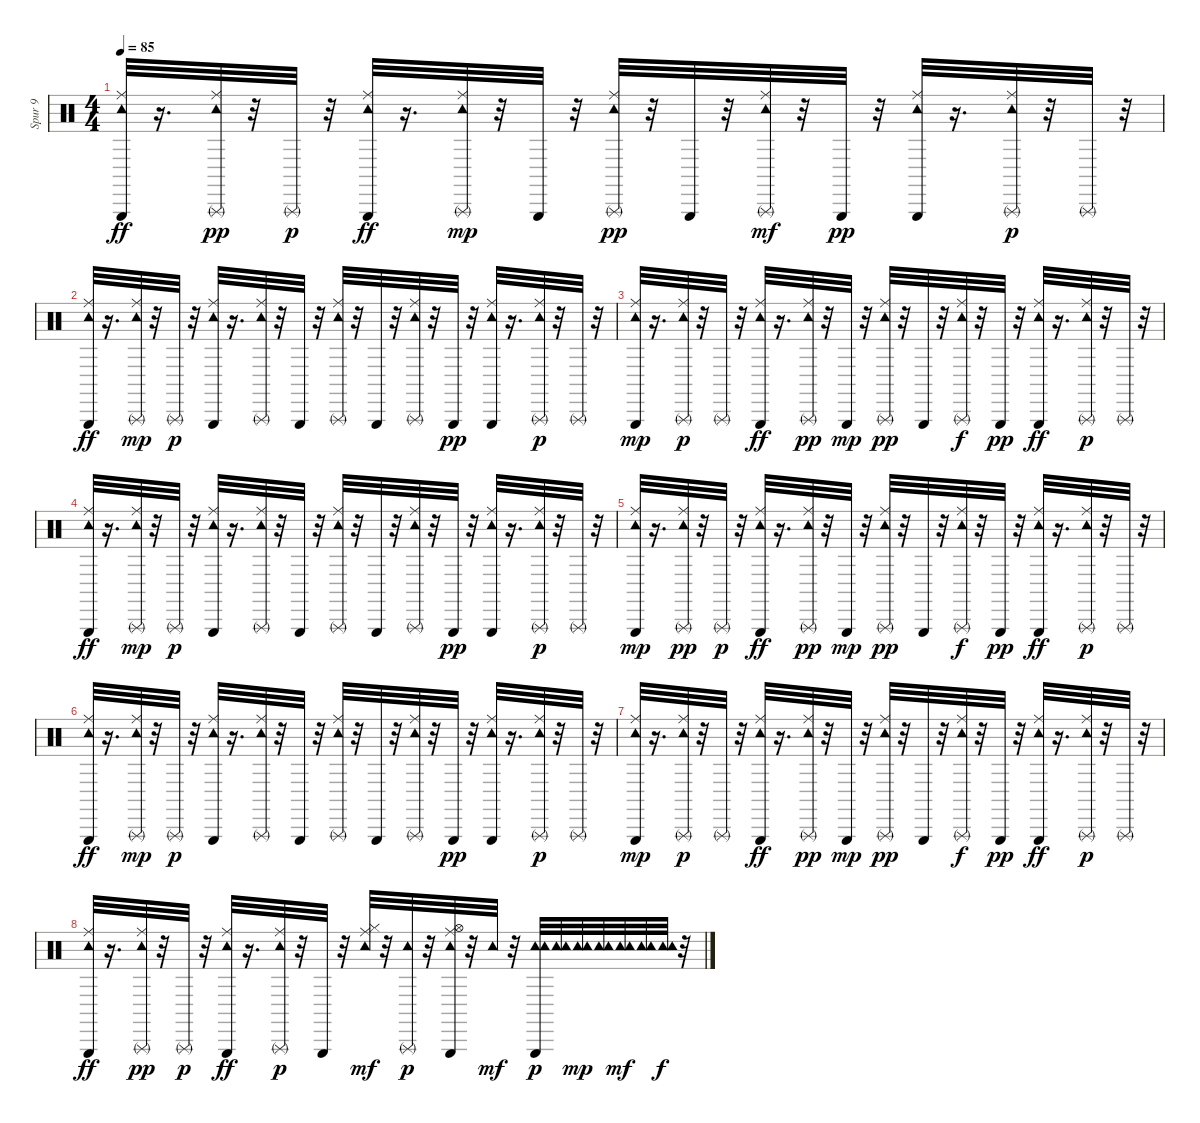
\track ("Spur 9" "Spur 9") {instrument percussion}
\staff {score}
\articulation defaults
\ts (4 4)
\tempo 85
\clef neutral
\ks c
("Ride (middle)" "Triangle (hit)" "Tambourine (hit)").32{dy ff} r.16{d} ("Tambourine (hit)" "Triangle (rnute)" "Ride (middle)").32{dy pp} r.32 "Triangle (rnute)".32{dy p} r.32 ("Triangle (hit)" "Tambourine (hit)" "Ride (middle)").32{dy ff} r.16{d} ("Ride (middle)" "Triangle (rnute)" "Tambourine (hit)").32{dy mp} r.32 "Triangle (hit)".32 r.32 ("Ride (middle)" "Tambourine (hit)" "Triangle (rnute)").32{dy pp} r.32 "Triangle (hit)".32 r.32 ("Triangle (rnute)" "Ride (middle)" "Tambourine (hit)").32{dy mf} r.32 "Triangle (hit)".32{dy pp} r.32 ("Tambourine (hit)" "Ride (middle)" "Triangle (hit)").32 r.16{d} ("Tambourine (hit)" "Triangle (rnute)" "Ride (middle)").32{dy p} r.32 "Triangle (rnute)".32 r.32 |
("Triangle (hit)" "Ride (middle)" "Tambourine (hit)").32{dy ff} r.16{d} ("Triangle (rnute)" "Ride (middle)" "Tambourine (hit)").32{dy mp} r.32 "Triangle (rnute)".32{dy p} r.32 ("Ride (middle)" "Tambourine (hit)" "Triangle (hit)").32 r.16{d} ("Ride (middle)" "Tambourine (hit)" "Triangle (rnute)").32 r.32 "Triangle (hit)".32 r.32 ("Ride (middle)" "Tambourine (hit)" "Triangle (rnute)").32 r.32 "Triangle (hit)".32 r.32 ("Tambourine (hit)" "Ride (middle)" "Triangle (rnute)").32 r.32 "Triangle (hit)".32{dy pp} r.32 ("Tambourine (hit)" "Ride (middle)" "Triangle (hit)").32 r.16{d} ("Tambourine (hit)" "Triangle (rnute)" "Ride (middle)").32{dy p} r.32 "Triangle (rnute)".32 r.32 |
("Tambourine (hit)" "Triangle (hit)" "Ride (middle)").32{dy mp} r.16{d} ("Tambourine (hit)" "Ride (middle)" "Triangle (rnute)").32{dy p} r.32 "Triangle (rnute)".32 r.32 ("Triangle (hit)" "Tambourine (hit)" "Ride (middle)").32{dy ff} r.16{d} ("Tambourine (hit)" "Ride (middle)" "Triangle (rnute)").32{dy pp} r.32 "Triangle (hit)".32{dy mp} r.32 ("Ride (middle)" "Tambourine (hit)" "Triangle (rnute)").32{dy pp} r.32 "Triangle (hit)".32 r.32 ("Tambourine (hit)" "Ride (middle)" "Triangle (rnute)").32{dy f} r.32 "Triangle (hit)".32{dy pp} r.32 ("Ride (middle)" "Triangle (hit)" "Tambourine (hit)").32{dy ff} r.16{d} ("Tambourine (hit)" "Triangle (rnute)" "Ride (middle)").32{dy p} r.32 "Triangle (rnute)".32 r.32 |
("Triangle (hit)" "Ride (middle)" "Tambourine (hit)").32{dy ff} r.16{d} ("Triangle (rnute)" "Ride (middle)" "Tambourine (hit)").32{dy mp} r.32 "Triangle (rnute)".32{dy p} r.32 ("Ride (middle)" "Tambourine (hit)" "Triangle (hit)").32 r.16{d} ("Ride (middle)" "Tambourine (hit)" "Triangle (rnute)").32 r.32 "Triangle (hit)".32 r.32 ("Ride (middle)" "Tambourine (hit)" "Triangle (rnute)").32 r.32 "Triangle (hit)".32 r.32 ("Ride (middle)" "Tambourine (hit)" "Triangle (rnute)").32 r.32 "Triangle (hit)".32{dy pp} r.32 ("Tambourine (hit)" "Ride (middle)" "Triangle (hit)").32 r.16{d} ("Tambourine (hit)" "Triangle (rnute)" "Ride (middle)").32{dy p} r.32 "Triangle (rnute)".32 r.32 |
("Tambourine (hit)" "Ride (middle)" "Triangle (hit)").32{dy mp} r.16{d} ("Triangle (rnute)" "Tambourine (hit)" "Ride (middle)").32{dy pp} r.32 "Triangle (rnute)".32{dy p} r.32 ("Triangle (hit)" "Tambourine (hit)" "Ride (middle)").32{dy ff} r.16{d} ("Ride (middle)" "Tambourine (hit)" "Triangle (rnute)").32{dy pp} r.32 "Triangle (hit)".32{dy mp} r.32 ("Tambourine (hit)" "Ride (middle)" "Triangle (rnute)").32{dy pp} r.32 "Triangle (hit)".32 r.32 ("Tambourine (hit)" "Ride (middle)" "Triangle (rnute)").32{dy f} r.32 "Triangle (hit)".32{dy pp} r.32 ("Ride (middle)" "Triangle (hit)" "Tambourine (hit)").32{dy ff} r.16{d} ("Tambourine (hit)" "Triangle (rnute)" "Ride (middle)").32{dy p} r.32 "Triangle (rnute)".32 r.32 |
("Triangle (hit)" "Ride (middle)" "Tambourine (hit)").32{dy ff} r.16{d} ("Triangle (rnute)" "Ride (middle)" "Tambourine (hit)").32{dy mp} r.32 "Triangle (rnute)".32{dy p} r.32 ("Ride (middle)" "Tambourine (hit)" "Triangle (hit)").32 r.16{d} ("Ride (middle)" "Tambourine (hit)" "Triangle (rnute)").32 r.32 "Triangle (hit)".32 r.32 ("Ride (middle)" "Tambourine (hit)" "Triangle (rnute)").32 r.32 "Triangle (hit)".32 r.32 ("Tambourine (hit)" "Ride (middle)" "Triangle (rnute)").32 r.32 "Triangle (hit)".32{dy pp} r.32 ("Tambourine (hit)" "Ride (middle)" "Triangle (hit)").32 r.16{d} ("Tambourine (hit)" "Triangle (rnute)" "Ride (middle)").32{dy p} r.32 "Triangle (rnute)".32 r.32 |
("Tambourine (hit)" "Triangle (hit)" "Ride (middle)").32{dy mp} r.16{d} ("Tambourine (hit)" "Ride (middle)" "Triangle (rnute)").32{dy p} r.32 "Triangle (rnute)".32 r.32 ("Triangle (hit)" "Tambourine (hit)" "Ride (middle)").32{dy ff} r.16{d} ("Tambourine (hit)" "Ride (middle)" "Triangle (rnute)").32{dy pp} r.32 "Triangle (hit)".32{dy mp} r.32 ("Ride (middle)" "Tambourine (hit)" "Triangle (rnute)").32{dy pp} r.32 "Triangle (hit)".32 r.32 ("Tambourine (hit)" "Ride (middle)" "Triangle (rnute)").32{dy f} r.32 "Triangle (hit)".32{dy pp} r.32 ("Ride (middle)" "Triangle (hit)" "Tambourine (hit)").32{dy ff} r.16{d} ("Tambourine (hit)" "Triangle (rnute)" "Ride (middle)").32{dy p} r.32 "Triangle (rnute)".32 r.32 |
("Triangle (hit)" "Tambourine (hit)" "Ride (middle)").32{dy ff} r.16{d} ("Triangle (rnute)" "Tambourine (hit)" "Ride (middle)").32{dy pp} r.32 "Triangle (rnute)".32{dy p} r.32 ("Ride (middle)" "Triangle (hit)" "Tambourine (hit)").32{dy ff} r.16{d} ("Ride (middle)" "Tambourine (hit)" "Triangle (rnute)").32{dy p} r.32 "Triangle (hit)".32 r.32 ("Hi-Hat (closed)" "Ride (middle)" "Tambourine (hit)").32{dy mf} r.32 ("Tambourine (hit)" "Triangle (rnute)").32{dy p} r.32 ("Hi-Hat (open)" "Ride (middle)" "Tambourine (hit)" "Triangle (hit)").32 r.32 "Tambourine (hit)".32{dy mf} r.32 ("Tambourine (hit)" "Triangle (hit)" "Tambourine (hit)").32{dy p} ("Tambourine (hit)" "Tambourine (hit)").32 ("Tambourine (hit)" "Tambourine (hit)").32{dy mp} ("Tambourine (hit)" "Tambourine (hit)").32 ("Tambourine (hit)" "Tambourine (hit)").32{dy mf} ("Tambourine (hit)" "Tambourine (hit)").32 ("Tambourine (hit)" "Tambourine (hit)").32{dy f} r.32
